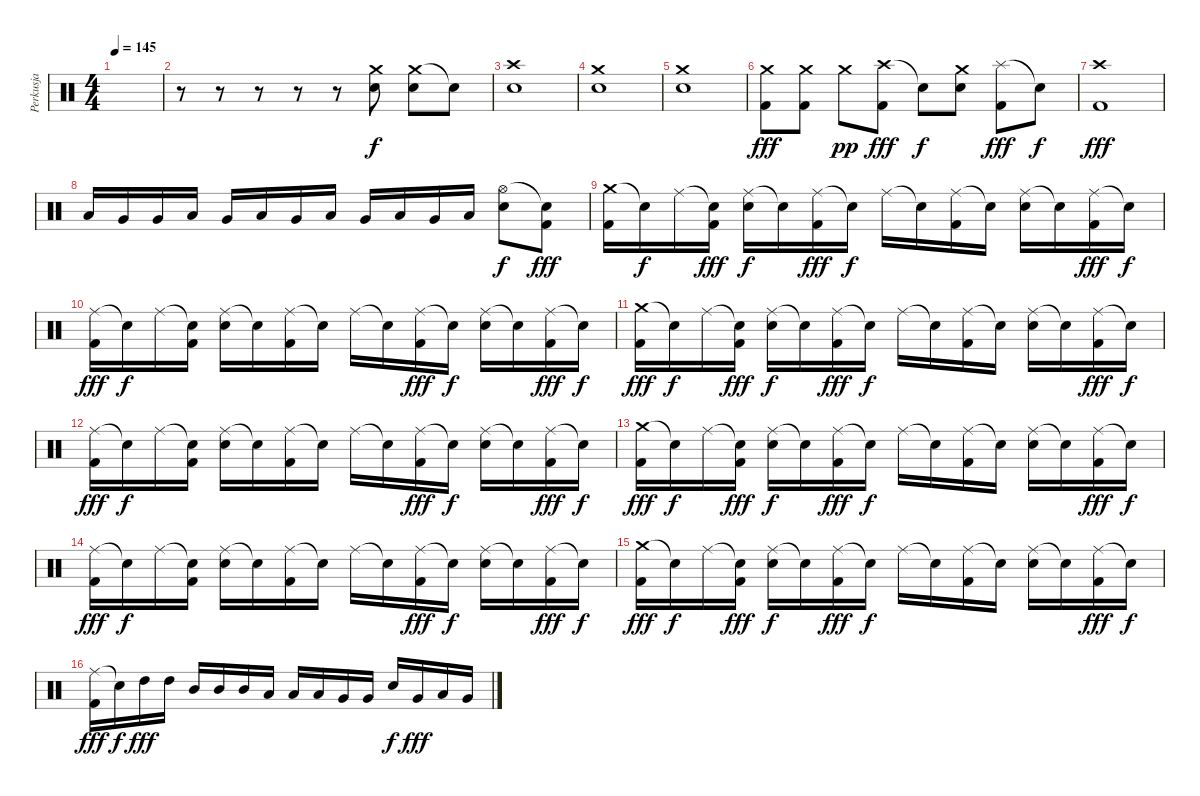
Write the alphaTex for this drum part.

\track ("Perkusja" "Perkusja") {instrument percussion}
\staff {score}
\articulation defaults
\ts (4 4)
\tempo 145
\clef neutral
\ks c
|
r.8 r.8 r.8 r.8 r.8 ("Crash medium (hit)" "Electric Snare (hit)").8 ("Crash medium (hit)" "Electric Snare (hit)").8 "Snare (hit)"{t}.8 |
("Crash high (hit)" "Electric Snare (hit)").1 |
("Crash medium (hit)" "Electric Snare (hit)").1 |
("Crash medium (hit)" "Electric Snare (hit)").1 |
("Crash medium (hit)" "Kick (hit) 2").8{dy fff} ("Crash medium (hit)" "Kick (hit) 2").8 "Crash medium (hit)".8{dy pp} ("Crash high (hit)" "Kick (hit) 2").8{dy fff} "Snare (hit)"{t}.8{dy f} ("Crash medium (hit)" "Electric Snare (hit)").8 ("Splash (hit)" "Kick (hit) 2").8{dy fff} "Snare (hit)"{t}.8{dy f} |
("Crash high (hit)" "Kick (hit) 2").1{dy fff} |
"Low Tom (hit)".16 "Very Low Tom (hit)".16 "Very Low Tom (hit)".16 "Low Tom (hit)".16 "Very Low Tom (hit)".16 "Low Floor Tom (hit)".16 "Very Low Tom (hit)".16 "Low Floor Tom (hit)".16 "Very Low Tom (hit)".16 "Low Tom (hit)".16 "Very Low Tom (hit)".16 "Low Tom (hit)".16 ("Hi-Hat (open)" "Electric Snare (hit)").8{dy f} ("Snare (hit)"{t} "Kick (hit) 2").8{dy fff} |
("Crash medium (hit)" "Kick (hit) 2").16 "Snare (hit)"{t}.16{dy f} "Ride (middle)".16 ("Snare (hit)"{t} "Kick (hit) 2").16{dy fff} ("Ride (middle)" "Electric Snare (hit)").16{dy f} "Snare (hit)"{t}.16 ("Ride (middle)" "Kick (hit) 2").16{dy fff} "Snare (hit)"{t}.16{dy f} "Ride (middle)".16 "Snare (hit)"{t}.16 ("Ride (middle)" "Kick (hit) 2").16 "Snare (hit)"{t}.16 ("Ride (middle)" "Electric Snare (hit)").16 "Snare (hit)"{t}.16 ("Ride (middle)" "Kick (hit) 2").16{dy fff} "Snare (hit)"{t}.16{dy f} |
("Ride (middle)" "Kick (hit) 2").16{dy fff} "Snare (hit)"{t}.16{dy f} "Ride (middle)".16 ("Snare (hit)"{t} "Kick (hit) 2").16 ("Ride (middle)" "Electric Snare (hit)").16 "Snare (hit)"{t}.16 ("Ride (middle)" "Kick (hit) 2").16 "Snare (hit)"{t}.16 "Ride (middle)".16 "Snare (hit)"{t}.16 ("Ride (middle)" "Kick (hit) 2").16{dy fff} "Snare (hit)"{t}.16{dy f} ("Ride (middle)" "Electric Snare (hit)").16 "Snare (hit)"{t}.16 ("Ride (middle)" "Kick (hit) 2").16{dy fff} "Snare (hit)"{t}.16{dy f} |
("Crash medium (hit)" "Kick (hit) 2").16{dy fff} "Snare (hit)"{t}.16{dy f} "Ride (middle)".16 ("Snare (hit)"{t} "Kick (hit) 2").16{dy fff} ("Ride (middle)" "Electric Snare (hit)").16{dy f} "Snare (hit)"{t}.16 ("Ride (middle)" "Kick (hit) 2").16{dy fff} "Snare (hit)"{t}.16{dy f} "Ride (middle)".16 "Snare (hit)"{t}.16 ("Ride (middle)" "Kick (hit) 2").16 "Snare (hit)"{t}.16 ("Ride (middle)" "Electric Snare (hit)").16 "Snare (hit)"{t}.16 ("Ride (middle)" "Kick (hit) 2").16{dy fff} "Snare (hit)"{t}.16{dy f} |
("Ride (middle)" "Kick (hit) 2").16{dy fff} "Snare (hit)"{t}.16{dy f} "Ride (middle)".16 ("Snare (hit)"{t} "Kick (hit) 2").16 ("Ride (middle)" "Electric Snare (hit)").16 "Snare (hit)"{t}.16 ("Ride (middle)" "Kick (hit) 2").16 "Snare (hit)"{t}.16 "Ride (middle)".16 "Snare (hit)"{t}.16 ("Ride (middle)" "Kick (hit) 2").16{dy fff} "Snare (hit)"{t}.16{dy f} ("Ride (middle)" "Electric Snare (hit)").16 "Snare (hit)"{t}.16 ("Ride (middle)" "Kick (hit) 2").16{dy fff} "Snare (hit)"{t}.16{dy f} |
("Crash medium (hit)" "Kick (hit) 2").16{dy fff} "Snare (hit)"{t}.16{dy f} "Ride (middle)".16 ("Snare (hit)"{t} "Kick (hit) 2").16{dy fff} ("Ride (middle)" "Electric Snare (hit)").16{dy f} "Snare (hit)"{t}.16 ("Ride (middle)" "Kick (hit) 2").16{dy fff} "Snare (hit)"{t}.16{dy f} "Ride (middle)".16 "Snare (hit)"{t}.16 ("Ride (middle)" "Kick (hit) 2").16 "Snare (hit)"{t}.16 ("Ride (middle)" "Electric Snare (hit)").16 "Snare (hit)"{t}.16 ("Ride (middle)" "Kick (hit) 2").16{dy fff} "Snare (hit)"{t}.16{dy f} |
("Ride (middle)" "Kick (hit) 2").16{dy fff} "Snare (hit)"{t}.16{dy f} "Ride (middle)".16 ("Snare (hit)"{t} "Kick (hit) 2").16 ("Ride (middle)" "Electric Snare (hit)").16 "Snare (hit)"{t}.16 ("Ride (middle)" "Kick (hit) 2").16 "Snare (hit)"{t}.16 "Ride (middle)".16 "Snare (hit)"{t}.16 ("Ride (middle)" "Kick (hit) 2").16{dy fff} "Snare (hit)"{t}.16{dy f} ("Ride (middle)" "Electric Snare (hit)").16 "Snare (hit)"{t}.16 ("Ride (middle)" "Kick (hit) 2").16{dy fff} "Snare (hit)"{t}.16{dy f} |
("Crash medium (hit)" "Kick (hit) 2").16{dy fff} "Snare (hit)"{t}.16{dy f} "Ride (middle)".16 ("Snare (hit)"{t} "Kick (hit) 2").16{dy fff} ("Ride (middle)" "Electric Snare (hit)").16{dy f} "Snare (hit)"{t}.16 ("Ride (middle)" "Kick (hit) 2").16{dy fff} "Snare (hit)"{t}.16{dy f} "Ride (middle)".16 "Snare (hit)"{t}.16 ("Ride (middle)" "Kick (hit) 2").16 "Snare (hit)"{t}.16 ("Ride (middle)" "Electric Snare (hit)").16 "Snare (hit)"{t}.16 ("Ride (middle)" "Kick (hit) 2").16{dy fff} "Snare (hit)"{t}.16{dy f} |
("Ride (middle)" "Kick (hit) 2").16{dy fff} "Snare (hit)"{t}.16{dy f} "High Tom (hit)".16{dy fff} "High Tom (hit)".16 "Mid Tom (hit)".16 "Mid Tom (hit)".16 "Mid Tom (hit)".16 "Low Tom (hit)".16 "Low Tom (hit)".16 "Low Tom (hit)".16 "Very Low Tom (hit)".16 "Very Low Tom (hit)".16 "Electric Snare (hit)".16{dy f} "Very Low Tom (hit)".16{dy fff} "Low Tom (hit)".16 "Very Low Tom (hit)".16
